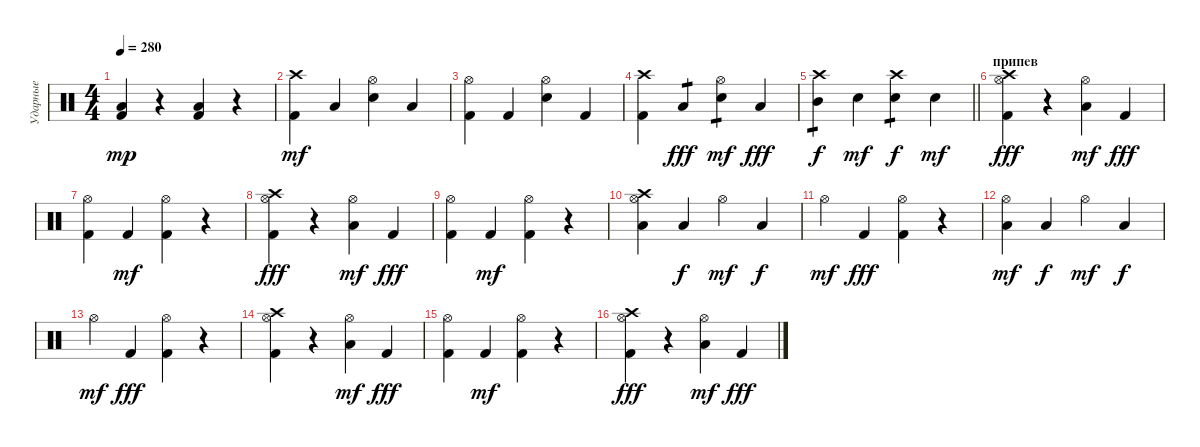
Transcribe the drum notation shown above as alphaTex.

\track ("Ударные" "Ударные") {instrument percussion}
\staff {score}
\articulation defaults
\ts (4 4)
\tempo 280
\clef neutral
\ks c
("Kick (hit) 2" "Low Tom (hit)").4{dy mp} r.4 ("Kick (hit) 2" "Low Tom (hit)").4 r.4 |
("Kick (hit) 2" "Crash high (hit)").4{dy mf} "Low Floor Tom (hit)".4 ("Snare (hit) 2" "Hi-Hat (open)").4 "Low Floor Tom (hit)".4 |
("Kick (hit) 2" "Hi-Hat (open)").4 "Kick (hit) 2".4 ("Snare (hit) 2" "Hi-Hat (open)").4 "Kick (hit) 2".4 |
("Kick (hit) 2" "Crash high (hit)").4 "Low Tom (hit)".4{tp 1 dy fff} ("Snare (hit) 2" "Hi-Hat (open)").4{tp 1 dy mf} "Low Tom (hit)".4{dy fff} |
\barLineRight lightlight
("Mid Tom (hit)" "Crash high (hit)").4{tp 1 dy f} "Snare (hit) 2".4{dy mf} ("Snare (hit) 2" "Crash high (hit)").4{tp 1 dy f} "Snare (hit) 2".4{dy mf} |
\section ("" "припев")
("Hi-Hat (open)" "Crash high (hit)" "Kick (hit) 2").4{dy fff} r.4 ("Hi-Hat (open)" "Low Tom (hit)").4{dy mf} "Kick (hit) 2".4{dy fff} |
("Hi-Hat (open)" "Kick (hit) 2").4 "Kick (hit) 2".4{dy mf} ("Hi-Hat (open)" "Kick (hit) 2").4 r.4 |
("Hi-Hat (open)" "Crash high (hit)" "Kick (hit) 2").4{dy fff} r.4 ("Hi-Hat (open)" "Low Tom (hit)").4{dy mf} "Kick (hit) 2".4{dy fff} |
("Hi-Hat (open)" "Kick (hit) 2").4 "Kick (hit) 2".4{dy mf} ("Hi-Hat (open)" "Kick (hit) 2").4 r.4 |
("Hi-Hat (open)" "Crash high (hit)" "Low Tom (hit)").4 "Low Tom (hit)".4{dy f} "Hi-Hat (open)".4{dy mf} "Low Tom (hit)".4{dy f} |
"Hi-Hat (open)".4{dy mf} "Kick (hit) 2".4{dy fff} ("Hi-Hat (open)" "Kick (hit) 2").4 r.4 |
("Hi-Hat (open)" "Low Tom (hit)").4{dy mf} "Low Tom (hit)".4{dy f} "Hi-Hat (open)".4{dy mf} "Low Tom (hit)".4{dy f} |
"Hi-Hat (open)".4{dy mf} "Kick (hit) 2".4{dy fff} ("Hi-Hat (open)" "Kick (hit) 2").4 r.4 |
("Hi-Hat (open)" "Crash high (hit)" "Kick (hit) 2").4 r.4 ("Hi-Hat (open)" "Low Tom (hit)").4{dy mf} "Kick (hit) 2".4{dy fff} |
("Hi-Hat (open)" "Kick (hit) 2").4 "Kick (hit) 2".4{dy mf} ("Hi-Hat (open)" "Kick (hit) 2").4 r.4 |
("Hi-Hat (open)" "Crash high (hit)" "Kick (hit) 2").4{dy fff} r.4 ("Hi-Hat (open)" "Low Tom (hit)").4{dy mf} "Kick (hit) 2".4{dy fff}
